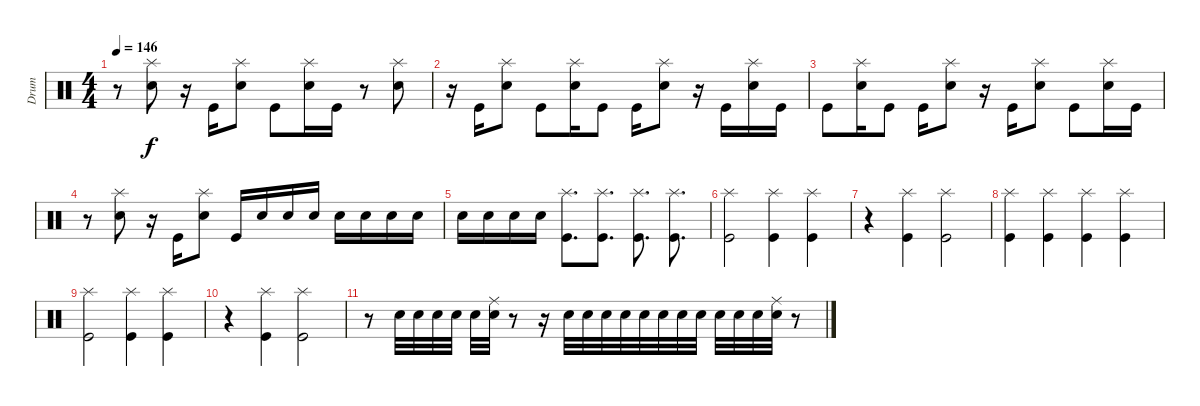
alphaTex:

\track ("Drum" "Drum") {instrument percussion}
\staff {score}
\articulation defaults
\ts (4 4)
\tempo 146
\clef neutral
\ks c
r.8{dy f} ("Splash (hit)" "Snare (hit) 2").8 r.16 "Kick (hit)".16 ("Splash (hit)" "Snare (hit) 2").8 "Kick (hit)".8 ("Splash (hit)" "Snare (hit) 2").16 "Kick (hit)".16 r.8 ("Splash (hit)" "Snare (hit) 2").8 |
r.16 "Kick (hit)".16 ("Splash (hit)" "Snare (hit) 2").8 "Kick (hit)".8 ("Splash (hit)" "Snare (hit) 2").16 "Kick (hit)".8 "Kick (hit)".16 ("Splash (hit)" "Snare (hit) 2").8 r.16 "Kick (hit)".16 ("Splash (hit)" "Snare (hit) 2").16 "Kick (hit)".16 |
"Kick (hit)".8 ("Splash (hit)" "Snare (hit) 2").16 "Kick (hit)".8 "Kick (hit)".16 ("Splash (hit)" "Snare (hit) 2").8 r.16 "Kick (hit)".16 ("Splash (hit)" "Snare (hit) 2").8 "Kick (hit)".8 ("Splash (hit)" "Snare (hit) 2").16 "Kick (hit)".16 |
r.8 ("Splash (hit)" "Snare (hit) 2").8 r.16 "Kick (hit)".16 ("Splash (hit)" "Snare (hit) 2").8 "Kick (hit)".16 "Snare (hit) 2".16 "Snare (hit) 2".16 "Snare (hit) 2".16 "Snare (hit) 2".16 "Snare (hit) 2".16 "Snare (hit) 2".16 "Snare (hit) 2".16 |
"Snare (hit) 2".16 "Snare (hit) 2".16 "Snare (hit) 2".16 "Snare (hit) 2".16 ("Splash (hit)" "Kick (hit)").8{d} ("Splash (hit)" "Kick (hit)").8{d} ("Splash (hit)" "Kick (hit)").8{d} ("Splash (hit)" "Kick (hit)").8{d} |
("Splash (hit)" "Kick (hit)").2 ("Splash (hit)" "Kick (hit)").4 ("Splash (hit)" "Kick (hit)").4 |
r.4 ("Splash (hit)" "Kick (hit)").4 ("Splash (hit)" "Kick (hit)").2 |
("Splash (hit)" "Kick (hit)").4 ("Splash (hit)" "Kick (hit)").4 ("Splash (hit)" "Kick (hit)").4 ("Splash (hit)" "Kick (hit)").4 |
("Splash (hit)" "Kick (hit)").2 ("Splash (hit)" "Kick (hit)").4 ("Splash (hit)" "Kick (hit)").4 |
r.4 ("Splash (hit)" "Kick (hit)").4 ("Splash (hit)" "Kick (hit)").2 |
r.8 "Snare (hit) 2".32 "Snare (hit) 2".32 "Snare (hit) 2".32 "Snare (hit) 2".32 "Snare (hit) 2".32 ("Ride (middle)" "Snare (hit) 2").32 r.8 r.16 "Snare (hit) 2".32 "Snare (hit) 2".32 "Snare (hit) 2".32 "Snare (hit) 2".32 "Snare (hit) 2".32 "Snare (hit) 2".32 "Snare (hit) 2".32 "Snare (hit) 2".32 "Snare (hit) 2".32 "Snare (hit) 2".32 "Snare (hit) 2".32 ("Ride (middle)" "Snare (hit) 2").32 r.8
